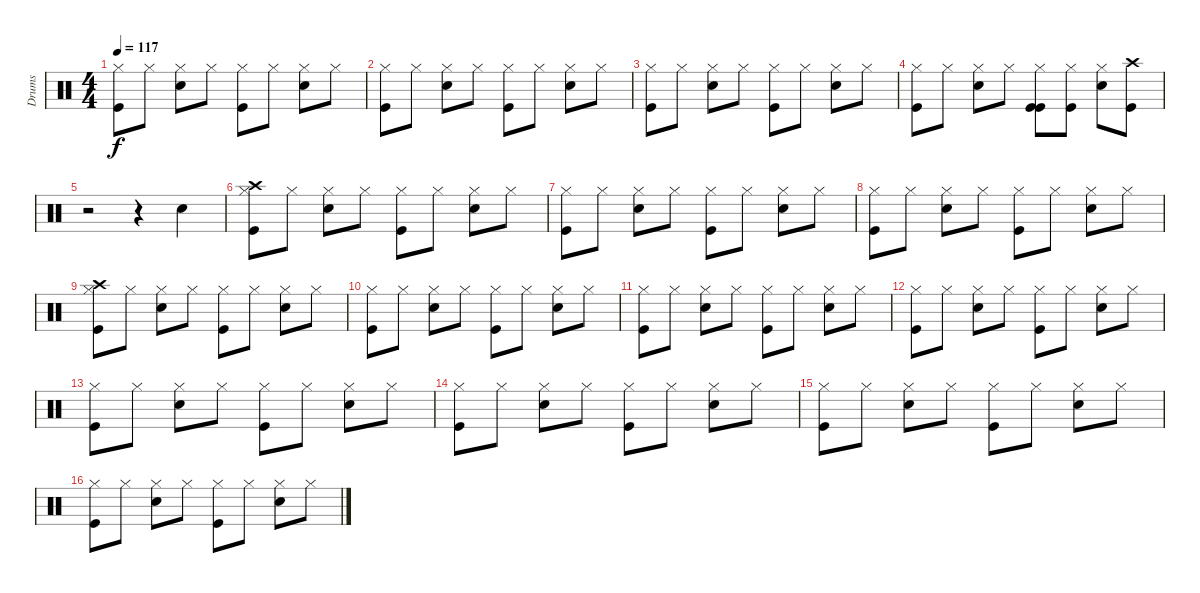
\track ("Drums" "Drums") {instrument percussion}
\staff {score}
\articulation defaults
\ts (4 4)
\tempo 117
\clef neutral
\ks c
("Kick (hit)" "Hi-Hat (closed)").8{dy f} "Hi-Hat (closed)".8 ("Hi-Hat (closed)" "Snare (hit) 2").8 "Hi-Hat (closed)".8 ("Kick (hit)" "Hi-Hat (closed)").8 "Hi-Hat (closed)".8 ("Hi-Hat (closed)" "Snare (hit) 2").8 "Hi-Hat (closed)".8 |
("Kick (hit)" "Hi-Hat (closed)").8 "Hi-Hat (closed)".8 ("Hi-Hat (closed)" "Snare (hit) 2").8 "Hi-Hat (closed)".8 ("Kick (hit)" "Hi-Hat (closed)").8 "Hi-Hat (closed)".8 ("Hi-Hat (closed)" "Snare (hit) 2").8 "Hi-Hat (closed)".8 |
("Kick (hit)" "Hi-Hat (closed)").8 "Hi-Hat (closed)".8 ("Hi-Hat (closed)" "Snare (hit) 2").8 "Hi-Hat (closed)".8 ("Kick (hit)" "Hi-Hat (closed)").8 "Hi-Hat (closed)".8 ("Hi-Hat (closed)" "Snare (hit) 2").8 "Hi-Hat (closed)".8 |
("Kick (hit)" "Hi-Hat (closed)").8 "Hi-Hat (closed)".8 ("Hi-Hat (closed)" "Snare (hit) 2").8 "Hi-Hat (closed)".8 ("Kick (hit)" "Kick (hit)" "Hi-Hat (closed)").8 ("Kick (hit)" "Hi-Hat (closed)").8 ("Hi-Hat (closed)" "Snare (hit) 2").8 ("Kick (hit)" "Crash high (hit)").8 |
r.2 r.4 "Snare (hit) 2".4 |
("Kick (hit)" "Hi-Hat (closed)" "Crash high (hit)").8 "Hi-Hat (closed)".8 ("Hi-Hat (closed)" "Snare (hit) 2").8 "Hi-Hat (closed)".8 ("Kick (hit)" "Hi-Hat (closed)").8 "Hi-Hat (closed)".8 ("Hi-Hat (closed)" "Snare (hit) 2").8 "Hi-Hat (closed)".8 |
("Kick (hit)" "Hi-Hat (closed)").8 "Hi-Hat (closed)".8 ("Hi-Hat (closed)" "Snare (hit) 2").8 "Hi-Hat (closed)".8 ("Kick (hit)" "Hi-Hat (closed)").8 "Hi-Hat (closed)".8 ("Hi-Hat (closed)" "Snare (hit) 2").8 "Hi-Hat (closed)".8 |
("Kick (hit)" "Hi-Hat (closed)").8 "Hi-Hat (closed)".8 ("Hi-Hat (closed)" "Snare (hit) 2").8 "Hi-Hat (closed)".8 ("Kick (hit)" "Hi-Hat (closed)").8 "Hi-Hat (closed)".8 ("Hi-Hat (closed)" "Snare (hit) 2").8 "Hi-Hat (closed)".8 |
("Kick (hit)" "Hi-Hat (closed)" "Crash high (hit)").8 "Hi-Hat (closed)".8 ("Hi-Hat (closed)" "Snare (hit) 2").8 "Hi-Hat (closed)".8 ("Kick (hit)" "Hi-Hat (closed)").8 "Hi-Hat (closed)".8 ("Hi-Hat (closed)" "Snare (hit) 2").8 "Hi-Hat (closed)".8 |
("Kick (hit)" "Hi-Hat (closed)").8 "Hi-Hat (closed)".8 ("Hi-Hat (closed)" "Snare (hit) 2").8 "Hi-Hat (closed)".8 ("Kick (hit)" "Hi-Hat (closed)").8 "Hi-Hat (closed)".8 ("Hi-Hat (closed)" "Snare (hit) 2").8 "Hi-Hat (closed)".8 |
("Kick (hit)" "Hi-Hat (closed)").8 "Hi-Hat (closed)".8 ("Hi-Hat (closed)" "Snare (hit) 2").8 "Hi-Hat (closed)".8 ("Kick (hit)" "Hi-Hat (closed)").8 "Hi-Hat (closed)".8 ("Hi-Hat (closed)" "Snare (hit) 2").8 "Hi-Hat (closed)".8 |
("Kick (hit)" "Hi-Hat (closed)").8 "Hi-Hat (closed)".8 ("Hi-Hat (closed)" "Snare (hit) 2").8 "Hi-Hat (closed)".8 ("Kick (hit)" "Hi-Hat (closed)").8 "Hi-Hat (closed)".8 ("Hi-Hat (closed)" "Snare (hit) 2").8 "Hi-Hat (closed)".8 |
("Kick (hit)" "Hi-Hat (closed)").8 "Hi-Hat (closed)".8 ("Hi-Hat (closed)" "Snare (hit) 2").8 "Hi-Hat (closed)".8 ("Kick (hit)" "Hi-Hat (closed)").8 "Hi-Hat (closed)".8 ("Hi-Hat (closed)" "Snare (hit) 2").8 "Hi-Hat (closed)".8 |
("Kick (hit)" "Hi-Hat (closed)").8 "Hi-Hat (closed)".8 ("Hi-Hat (closed)" "Snare (hit) 2").8 "Hi-Hat (closed)".8 ("Kick (hit)" "Hi-Hat (closed)").8 "Hi-Hat (closed)".8 ("Hi-Hat (closed)" "Snare (hit) 2").8 "Hi-Hat (closed)".8 |
("Kick (hit)" "Hi-Hat (closed)").8 "Hi-Hat (closed)".8 ("Hi-Hat (closed)" "Snare (hit) 2").8 "Hi-Hat (closed)".8 ("Kick (hit)" "Hi-Hat (closed)").8 "Hi-Hat (closed)".8 ("Hi-Hat (closed)" "Snare (hit) 2").8 "Hi-Hat (closed)".8 |
("Kick (hit)" "Hi-Hat (closed)").8 "Hi-Hat (closed)".8 ("Hi-Hat (closed)" "Snare (hit) 2").8 "Hi-Hat (closed)".8 ("Kick (hit)" "Hi-Hat (closed)").8 "Hi-Hat (closed)".8 ("Hi-Hat (closed)" "Snare (hit) 2").8 "Hi-Hat (closed)".8
